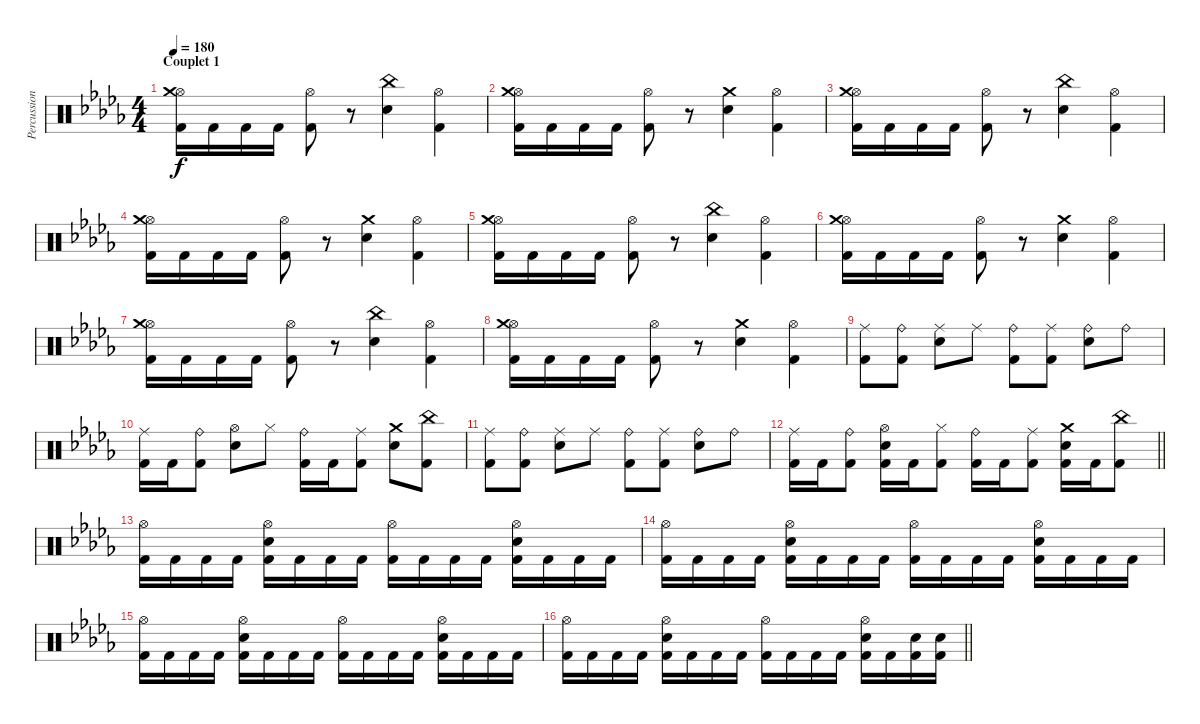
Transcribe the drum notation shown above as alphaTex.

\track ("Percussions" "Percussion") {instrument percussion}
\staff {score}
\articulation defaults
\ts (4 4)
\section ("" "Couplet 1")
\tempo 180
\clef neutral
\ks bbminor
("Hi-Hat (open)" "Crash medium (hit)" "Kick (hit) 2").16{dy f} "Kick (hit) 2".16 "Kick (hit) 2".16 "Kick (hit) 2".16 ("Hi-Hat (open)" "Kick (hit) 2").8 r.8 ("China (hit)" "Electric Snare (hit)").4 ("Hi-Hat (open)" "Kick (hit) 2").4 |
("Hi-Hat (open)" "Crash medium (hit)" "Kick (hit) 2").16 "Kick (hit) 2".16 "Kick (hit) 2".16 "Kick (hit) 2".16 ("Hi-Hat (open)" "Kick (hit) 2").8 r.8 ("Crash medium (hit)" "Electric Snare (hit)").4 ("Hi-Hat (open)" "Kick (hit) 2").4 |
("Hi-Hat (open)" "Crash medium (hit)" "Kick (hit) 2").16 "Kick (hit) 2".16 "Kick (hit) 2".16 "Kick (hit) 2".16 ("Hi-Hat (open)" "Kick (hit) 2").8 r.8 ("China (hit)" "Electric Snare (hit)").4 ("Hi-Hat (open)" "Kick (hit) 2").4 |
("Hi-Hat (open)" "Crash medium (hit)" "Kick (hit) 2").16 "Kick (hit) 2".16 "Kick (hit) 2".16 "Kick (hit) 2".16 ("Hi-Hat (open)" "Kick (hit) 2").8 r.8 ("Crash medium (hit)" "Electric Snare (hit)").4 ("Hi-Hat (open)" "Kick (hit) 2").4 |
("Hi-Hat (open)" "Crash medium (hit)" "Kick (hit) 2").16 "Kick (hit) 2".16 "Kick (hit) 2".16 "Kick (hit) 2".16 ("Hi-Hat (open)" "Kick (hit) 2").8 r.8 ("China (hit)" "Electric Snare (hit)").4 ("Hi-Hat (open)" "Kick (hit) 2").4 |
("Hi-Hat (open)" "Crash medium (hit)" "Kick (hit) 2").16 "Kick (hit) 2".16 "Kick (hit) 2".16 "Kick (hit) 2".16 ("Hi-Hat (open)" "Kick (hit) 2").8 r.8 ("Crash medium (hit)" "Electric Snare (hit)").4 ("Hi-Hat (open)" "Kick (hit) 2").4 |
("Hi-Hat (open)" "Crash medium (hit)" "Kick (hit) 2").16 "Kick (hit) 2".16 "Kick (hit) 2".16 "Kick (hit) 2".16 ("Hi-Hat (open)" "Kick (hit) 2").8 r.8 ("China (hit)" "Electric Snare (hit)").4 ("Hi-Hat (open)" "Kick (hit) 2").4 |
("Hi-Hat (open)" "Crash medium (hit)" "Kick (hit) 2").16 "Kick (hit) 2".16 "Kick (hit) 2".16 "Kick (hit) 2".16 ("Hi-Hat (open)" "Kick (hit) 2").8 r.8 ("Crash medium (hit)" "Electric Snare (hit)").4 ("Hi-Hat (open)" "Kick (hit) 2").4 |
("Ride (middle)" "Kick (hit) 2").8 ("Ride (bell)" "Kick (hit) 2").8 ("Ride (middle)" "Electric Snare (hit)").8 "Ride (middle)".8 ("Ride (bell)" "Kick (hit) 2").8 ("Ride (middle)" "Kick (hit) 2").8 ("Ride (bell)" "Electric Snare (hit)").8 "Ride (bell)".8 |
("Ride (middle)" "Kick (hit) 2").16 "Kick (hit) 2".16 ("Ride (bell)" "Kick (hit) 2").8 ("Hi-Hat (open)" "Electric Snare (hit)").8 "Hi-Hat (closed)".8 ("Ride (bell)" "Kick (hit) 2").16 "Kick (hit) 2".16 ("Ride (middle)" "Kick (hit) 2").8 ("Crash medium (hit)" "Electric Snare (hit)").8 ("China (hit)" "Kick (hit) 2").8 |
("Ride (middle)" "Kick (hit) 2").8 ("Ride (bell)" "Kick (hit) 2").8 ("Ride (middle)" "Electric Snare (hit)").8 "Ride (middle)".8 ("Ride (bell)" "Kick (hit) 2").8 ("Ride (middle)" "Kick (hit) 2").8 ("Ride (bell)" "Electric Snare (hit)").8 "Ride (bell)".8 |
\barLineRight lightlight
("Ride (middle)" "Kick (hit) 2").16 "Kick (hit) 2".16 ("Ride (bell)" "Kick (hit) 2").8 ("Hi-Hat (open)" "Electric Snare (hit)" "Kick (hit) 2").16 "Kick (hit) 2".16 ("Hi-Hat (closed)" "Kick (hit) 2").8 ("Ride (bell)" "Kick (hit) 2").16 "Kick (hit) 2".16 ("Ride (middle)" "Kick (hit) 2").8 ("Crash medium (hit)" "Electric Snare (hit)" "Kick (hit) 2").16 "Kick (hit) 2".16 ("China (hit)" "Kick (hit) 2").8 |
("Hi-Hat (open)" "Kick (hit) 2").16 "Kick (hit) 2".16 "Kick (hit) 2".16 "Kick (hit) 2".16 ("Hi-Hat (open)" "Electric Snare (hit)" "Kick (hit) 2").16 "Kick (hit) 2".16 "Kick (hit) 2".16 "Kick (hit) 2".16 ("Hi-Hat (open)" "Kick (hit) 2").16 "Kick (hit) 2".16 "Kick (hit) 2".16 "Kick (hit) 2".16 ("Hi-Hat (open)" "Electric Snare (hit)" "Kick (hit) 2").16 "Kick (hit) 2".16 "Kick (hit) 2".16 "Kick (hit) 2".16 |
("Hi-Hat (open)" "Kick (hit) 2").16 "Kick (hit) 2".16 "Kick (hit) 2".16 "Kick (hit) 2".16 ("Hi-Hat (open)" "Electric Snare (hit)" "Kick (hit) 2").16 "Kick (hit) 2".16 "Kick (hit) 2".16 "Kick (hit) 2".16 ("Hi-Hat (open)" "Kick (hit) 2").16 "Kick (hit) 2".16 "Kick (hit) 2".16 "Kick (hit) 2".16 ("Hi-Hat (open)" "Electric Snare (hit)" "Kick (hit) 2").16 "Kick (hit) 2".16 "Kick (hit) 2".16 "Kick (hit) 2".16 |
("Hi-Hat (open)" "Kick (hit) 2").16 "Kick (hit) 2".16 "Kick (hit) 2".16 "Kick (hit) 2".16 ("Hi-Hat (open)" "Electric Snare (hit)" "Kick (hit) 2").16 "Kick (hit) 2".16 "Kick (hit) 2".16 "Kick (hit) 2".16 ("Hi-Hat (open)" "Kick (hit) 2").16 "Kick (hit) 2".16 "Kick (hit) 2".16 "Kick (hit) 2".16 ("Hi-Hat (open)" "Electric Snare (hit)" "Kick (hit) 2").16 "Kick (hit) 2".16 "Kick (hit) 2".16 "Kick (hit) 2".16 |
\barLineRight lightlight
("Hi-Hat (open)" "Kick (hit) 2").16 "Kick (hit) 2".16 "Kick (hit) 2".16 "Kick (hit) 2".16 ("Hi-Hat (open)" "Electric Snare (hit)" "Kick (hit) 2").16 "Kick (hit) 2".16 "Kick (hit) 2".16 "Kick (hit) 2".16 ("Hi-Hat (open)" "Kick (hit) 2").16 "Kick (hit) 2".16 "Kick (hit) 2".16 "Kick (hit) 2".16 ("Hi-Hat (open)" "Electric Snare (hit)" "Kick (hit) 2").16 "Kick (hit) 2".16 ("Electric Snare (hit)" "Kick (hit) 2").16 ("Electric Snare (hit)" "Kick (hit) 2").16
